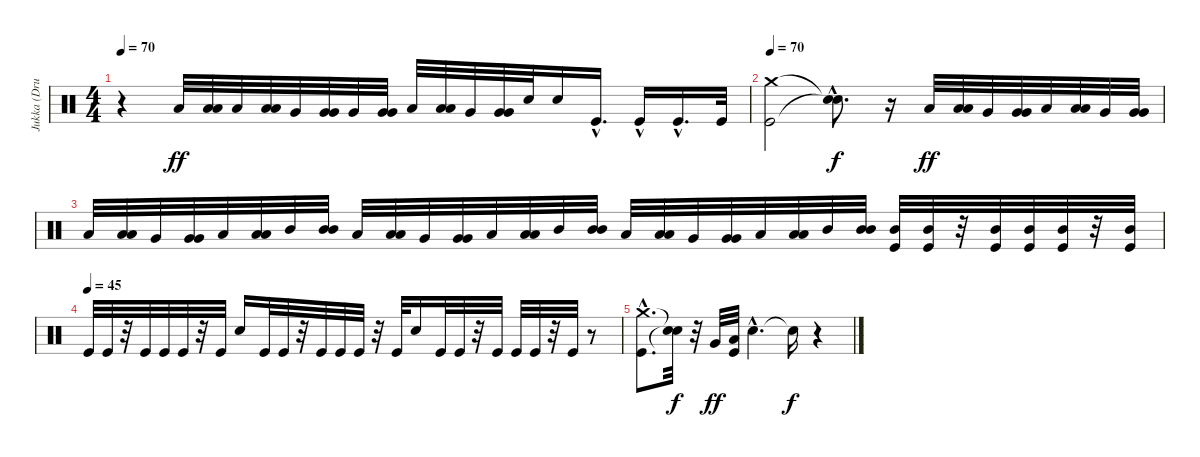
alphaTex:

\track ("Jukka (Drums)" "Jukka (Dru") {instrument percussion}
\staff {score}
\articulation defaults
\ts (4 4)
\tempo 70
\clef neutral
\ks c
r.4{dy f} "Low Tom (hit)".32{dy ff} ("Low Tom (hit)" "Low Tom (hit)").32 "Low Tom (hit)".32 ("Low Tom (hit)" "Low Tom (hit)").32 "Very Low Tom (hit)".32 ("Very Low Tom (hit)" "Very Low Tom (hit)").32 "Very Low Tom (hit)".32 ("Very Low Tom (hit)" "Very Low Tom (hit)").32 "Low Floor Tom (hit)".32 ("Low Floor Tom (hit)" "Low Floor Tom (hit)").32 "Very Low Tom (hit)".32 ("Very Low Tom (hit)" "Very Low Tom (hit)").32 "Electric Snare (hit)".32 "Electric Snare (hit)".16 "Kick (hit)"{hac}.16{d} "Kick (hit)"{hac}.16 "Kick (hit)"{hac}.16{d} "Kick (hit)".32 |
\tempo 70
("Kick (hit)" "Crash medium (hit)").2 ("Snare (hit)"{hac t} "Snare (hit)"{hac t}).8{d dy f} r.16 "Low Tom (hit)".32{dy ff} ("Low Tom (hit)" "Low Tom (hit)").32 "Very Low Tom (hit)".32 ("Very Low Tom (hit)" "Very Low Tom (hit)").32 "Low Floor Tom (hit)".32 ("Low Floor Tom (hit)" "Low Floor Tom (hit)").32 "Very Low Tom (hit)".32 ("Very Low Tom (hit)" "Very Low Tom (hit)").32 |
"Low Floor Tom (hit)".32 ("Low Floor Tom (hit)" "Low Floor Tom (hit)").32 "Very Low Tom (hit)".32 ("Very Low Tom (hit)" "Very Low Tom (hit)").32 "Low Tom (hit)".32 ("Low Tom (hit)" "Low Tom (hit)").32 "Mid Tom (hit)".32 ("Mid Tom (hit)" "Mid Tom (hit)").32 "Low Floor Tom (hit)".32 ("Low Floor Tom (hit)" "Low Floor Tom (hit)").32 "Very Low Tom (hit)".32 ("Very Low Tom (hit)" "Very Low Tom (hit)").32 "Low Tom (hit)".32 ("Low Tom (hit)" "Low Tom (hit)").32 "Mid Tom (hit)".32 ("Mid Tom (hit)" "Mid Tom (hit)").32 "Low Floor Tom (hit)".32 ("Low Floor Tom (hit)" "Low Floor Tom (hit)").32 "Very Low Tom (hit)".32 ("Very Low Tom (hit)" "Very Low Tom (hit)").32 "Low Tom (hit)".32 ("Low Tom (hit)" "Low Tom (hit)").32 "Mid Tom (hit)".32 ("Mid Tom (hit)" "Mid Tom (hit)").32 ("Kick (hit)" "Mid Tom (hit)").32 ("Kick (hit)" "Mid Tom (hit)").32 r.32 ("Kick (hit)" "Mid Tom (hit)").32 ("Kick (hit)" "Mid Tom (hit)").32 ("Kick (hit)" "Mid Tom (hit)").32 r.32 ("Kick (hit)" "Mid Tom (hit)").32 |
\tempo (45)
"Kick (hit)".32 "Kick (hit)".32 r.32 "Kick (hit)".32 "Kick (hit)".32 "Kick (hit)".32 r.32 "Kick (hit)".32 "Electric Snare (hit)".16 "Kick (hit)".32 "Kick (hit)".32 r.32 "Kick (hit)".32 "Kick (hit)".32 "Kick (hit)".32 r.32 "Kick (hit)".32 "Electric Snare (hit)".16 "Kick (hit)".32 "Kick (hit)".32 r.32 "Kick (hit)".32 "Kick (hit)".32 "Kick (hit)".32 r.32 "Kick (hit)".32 r.8 |
("Kick (hit)"{hac} "Crash medium (hit)"{hac}).8{d} ("Snare (hit)"{t} "Snare (hit)"{t}).32{dy f} r.32 "Very Low Tom (hit)".32{dy ff} ("Low Floor Tom (hit)" "Kick (hit)").32 "Electric Snare (hit)"{hac}.4{d} "Snare (hit)"{t}.16{dy f} r.4
